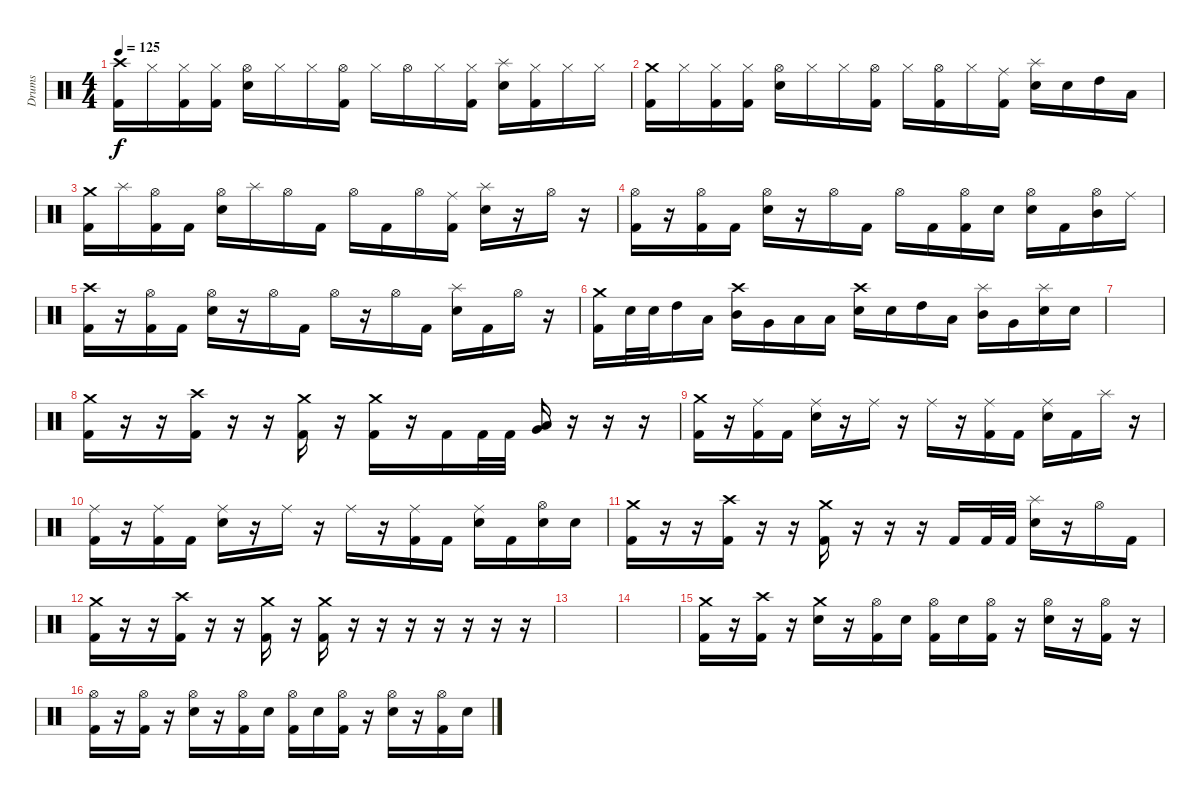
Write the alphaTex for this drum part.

\track ("Drums" "Drums") {instrument percussion}
\staff {score}
\articulation defaults
\ts (4 4)
\tempo 125
\clef neutral
\ks c
("Crash high (hit)" "Kick (hit) 2").16{dy f} "Hi-Hat (closed)".16 ("Hi-Hat (closed)" "Kick (hit) 2").16 ("Hi-Hat (closed)" "Kick (hit) 2").16 ("Hi-Hat (open)" "Electric Snare (hit)").16 "Hi-Hat (closed)".16 "Hi-Hat (closed)".16 ("Hi-Hat (open)" "Kick (hit) 2").16 "Hi-Hat (closed)".16 "Hi-Hat (open)".16 "Hi-Hat (closed)".16 ("Hi-Hat (closed)" "Kick (hit) 2").16 ("Splash (hit)" "Electric Snare (hit)").16 ("Hi-Hat (closed)" "Kick (hit) 2").16 "Hi-Hat (closed)".16 "Hi-Hat (closed)".16 |
("Crash medium (hit)" "Kick (hit) 2").16 "Hi-Hat (closed)".16 ("Hi-Hat (closed)" "Kick (hit) 2").16 ("Hi-Hat (closed)" "Kick (hit) 2").16 ("Hi-Hat (open)" "Electric Snare (hit)").16 "Hi-Hat (closed)".16 "Hi-Hat (closed)".16 ("Hi-Hat (open)" "Kick (hit) 2").16 "Hi-Hat (closed)".16 ("Hi-Hat (open)" "Kick (hit) 2").16 "Hi-Hat (closed)".16 ("Ride (middle)" "Kick (hit) 2").16 ("Splash (hit)" "Electric Snare (hit)").16 "Electric Snare (hit)".16 "High Tom (hit)".16 "Low Tom (hit)".16 |
("Crash medium (hit)" "Kick (hit) 2").16 "Splash (hit)".16 ("Hi-Hat (open)" "Kick (hit) 2").16 "Kick (hit) 2".16 ("Hi-Hat (open)" "Electric Snare (hit)").16 "Splash (hit)".16 "Hi-Hat (open)".16 "Kick (hit) 2".16 "Hi-Hat (open)".16 "Kick (hit) 2".16 "Hi-Hat (open)".16 ("Ride (middle)" "Kick (hit) 2").16 ("Splash (hit)" "Electric Snare (hit)").16 r.16 "Hi-Hat (open)".16 r.16 |
("Hi-Hat (open)" "Kick (hit) 2").16 r.16 ("Hi-Hat (open)" "Kick (hit) 2").16 "Kick (hit) 2".16 ("Hi-Hat (open)" "Electric Snare (hit)").16 r.16 "Hi-Hat (open)".16 "Kick (hit) 2".16 "Hi-Hat (open)".16 "Kick (hit) 2".16 ("Hi-Hat (open)" "Kick (hit) 2").16 "Electric Snare (hit)".16 ("Hi-Hat (open)" "Electric Snare (hit)").16 "Kick (hit) 2".16 ("Hi-Hat (open)" "Mid Tom (hit)").16 "Ride (middle)".16 |
("Crash high (hit)" "Kick (hit) 2").16 r.16 ("Hi-Hat (open)" "Kick (hit) 2").16 "Kick (hit) 2".16 ("Hi-Hat (open)" "Electric Snare (hit)").16 r.16 "Hi-Hat (open)".16 "Kick (hit) 2".16 "Hi-Hat (open)".16 r.16 "Hi-Hat (open)".16 "Kick (hit) 2".16 ("Splash (hit)" "Electric Snare (hit)").16 "Kick (hit) 2".16 "Hi-Hat (open)".16 r.16 |
("Crash medium (hit)" "Kick (hit) 2").16 "Electric Snare (hit)".32 "Electric Snare (hit)".32 "High Tom (hit)".16 "Low Tom (hit)".16 ("Crash high (hit)" "Mid Tom (hit)").16 "Very Low Tom (hit)".16 "Low Floor Tom (hit)".16 "Low Tom (hit)".16 ("Crash high (hit)" "Electric Snare (hit)").16 "Electric Snare (hit)".16 "High Tom (hit)".16 "Low Tom (hit)".16 ("Splash (hit)" "Mid Tom (hit)").16 "Very Low Tom (hit)".16 ("Splash (hit)" "Electric Snare (hit)").16 "Electric Snare (hit)".16 |
|
("Crash medium (hit)" "Kick (hit) 2").16 r.16 r.16 ("Crash high (hit)" "Kick (hit) 2").16 r.16 r.16 ("Crash medium (hit)" "Kick (hit) 2").16 r.16 ("Crash medium (hit)" "Kick (hit) 2").16 r.16 "Kick (hit) 2".16 "Kick (hit) 2".32 "Kick (hit) 2".32 ("Low Tom (hit)" "Very Low Tom (hit)").16 r.16 r.16 r.16 |
("Crash medium (hit)" "Kick (hit) 2").16 r.16 ("Ride (middle)" "Kick (hit) 2").16 "Kick (hit) 2".16 ("Ride (middle)" "Electric Snare (hit)").16 r.16 "Ride (middle)".16 r.16 "Ride (middle)".16 r.16 ("Ride (middle)" "Kick (hit) 2").16 "Kick (hit) 2".16 ("Ride (middle)" "Electric Snare (hit)").16 "Kick (hit) 2".16 "Splash (hit)".16 r.16 |
("Ride (middle)" "Kick (hit) 2").16 r.16 ("Ride (middle)" "Kick (hit) 2").16 "Kick (hit) 2".16 ("Ride (middle)" "Electric Snare (hit)").16 r.16 "Ride (middle)".16 r.16 "Ride (middle)".16 r.16 ("Ride (middle)" "Kick (hit) 2").16 "Kick (hit) 2".16 ("Ride (middle)" "Electric Snare (hit)").16 "Kick (hit) 2".16 ("Hi-Hat (open)" "Electric Snare (hit)").16 "Electric Snare (hit)".16 |
("Crash medium (hit)" "Kick (hit) 2").16 r.16 r.16 ("Crash high (hit)" "Kick (hit) 2").16 r.16 r.16 ("Crash medium (hit)" "Kick (hit) 2").16 r.16 r.16 r.16 "Kick (hit) 2".16 "Kick (hit) 2".32 "Kick (hit) 2".32 ("Splash (hit)" "Electric Snare (hit)").16 r.16 "Hi-Hat (open)".16 "Kick (hit) 2".16 |
("Crash medium (hit)" "Kick (hit) 2").16 r.16 r.16 ("Crash high (hit)" "Kick (hit) 2").16 r.16 r.16 ("Crash medium (hit)" "Kick (hit) 2").16 r.16 ("Crash medium (hit)" "Kick (hit) 2").16 r.16 r.16 r.16 r.16 r.16 r.16 r.16 |
|
|
("Crash medium (hit)" "Kick (hit) 2").16 r.16 ("Crash high (hit)" "Kick (hit) 2").16 r.16 ("Crash medium (hit)" "Electric Snare (hit)").16 r.16 ("Hi-Hat (open)" "Kick (hit) 2").16 "Electric Snare (hit)".16 ("Hi-Hat (open)" "Kick (hit) 2").16 "Electric Snare (hit)".16 ("Hi-Hat (open)" "Kick (hit) 2").16 r.16 ("Hi-Hat (open)" "Electric Snare (hit)").16 r.16 ("Hi-Hat (open)" "Kick (hit) 2").16 r.16 |
("Hi-Hat (open)" "Kick (hit) 2").16 r.16 ("Hi-Hat (open)" "Kick (hit) 2").16 r.16 ("Hi-Hat (open)" "Electric Snare (hit)").16 r.16 ("Hi-Hat (open)" "Kick (hit) 2").16 "Electric Snare (hit)".16 ("Hi-Hat (open)" "Kick (hit) 2").16 "Electric Snare (hit)".16 ("Hi-Hat (open)" "Kick (hit) 2").16 r.16 ("Hi-Hat (open)" "Electric Snare (hit)").16 r.16 ("Hi-Hat (open)" "Kick (hit) 2").16 "Electric Snare (hit)".16
